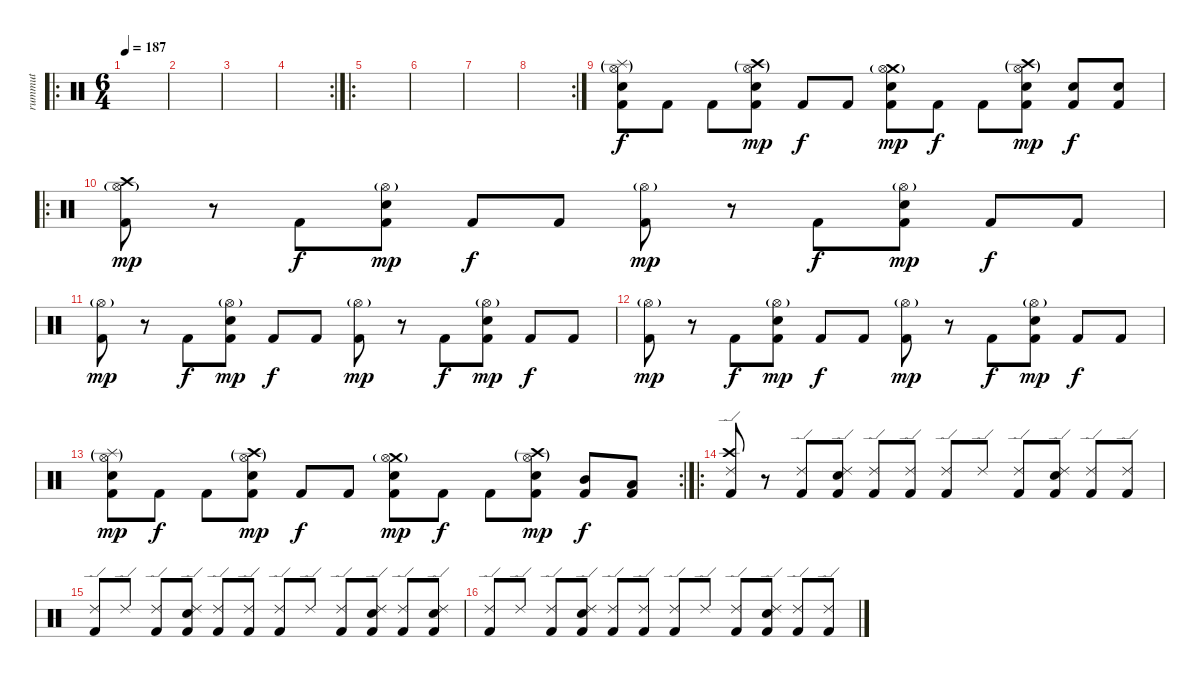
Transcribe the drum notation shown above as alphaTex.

\track ("rummut" "rummut") {instrument percussion}
\staff {score}
\articulation defaults
\ro
\ts (6 4)
\tempo 187
\clef neutral
\ks c
|
|
|
\rc 2
|
\ro
|
|
|
\rc 2
|
("Kick (hit) 2" "Snare (hit) 2" "Splash (hit)"{g} "Hi-Hat (open)"{g}).8 "Kick (hit) 2".8{dy f} "Kick (hit) 2".8 ("Kick (hit) 2" "Snare (hit) 2" "Crash high (hit)"{g} "Hi-Hat (open)"{g}).8{dy mp} "Kick (hit) 2".8{dy f} "Kick (hit) 2".8 ("Kick (hit) 2" "Snare (hit) 2" "Crash medium (hit)"{g} "Hi-Hat (open)"{g}).8{dy mp} "Kick (hit) 2".8{dy f} "Kick (hit) 2".8 ("Kick (hit) 2" "Snare (hit) 2" "Crash high (hit)"{g} "Hi-Hat (open)"{g}).8{dy mp} ("Kick (hit) 2" "Snare (hit) 2").8{dy f} ("Kick (hit) 2" "Snare (hit) 2").8 |
\ro
("Kick (hit) 2" "Hi-Hat (open)"{g} "Crash high (hit)").8{dy mp} r.8 "Kick (hit) 2".8{dy f} ("Kick (hit) 2" "Hi-Hat (open)"{g} "Snare (hit) 2").8{dy mp} "Kick (hit) 2".8{dy f} "Kick (hit) 2".8 ("Kick (hit) 2" "Hi-Hat (open)"{g}).8{dy mp} r.8 "Kick (hit) 2".8{dy f} ("Kick (hit) 2" "Hi-Hat (open)"{g} "Snare (hit) 2").8{dy mp} "Kick (hit) 2".8{dy f} "Kick (hit) 2".8 |
("Kick (hit) 2" "Hi-Hat (open)"{g}).8{dy mp} r.8 "Kick (hit) 2".8{dy f} ("Kick (hit) 2" "Hi-Hat (open)"{g} "Snare (hit) 2").8{dy mp} "Kick (hit) 2".8{dy f} "Kick (hit) 2".8 ("Kick (hit) 2" "Hi-Hat (open)"{g}).8{dy mp} r.8 "Kick (hit) 2".8{dy f} ("Kick (hit) 2" "Hi-Hat (open)"{g} "Snare (hit) 2").8{dy mp} "Kick (hit) 2".8{dy f} "Kick (hit) 2".8 |
("Kick (hit) 2" "Hi-Hat (open)"{g}).8{dy mp} r.8 "Kick (hit) 2".8{dy f} ("Kick (hit) 2" "Hi-Hat (open)"{g} "Snare (hit) 2").8{dy mp} "Kick (hit) 2".8{dy f} "Kick (hit) 2".8 ("Kick (hit) 2" "Hi-Hat (open)"{g}).8{dy mp} r.8 "Kick (hit) 2".8{dy f} ("Kick (hit) 2" "Hi-Hat (open)"{g} "Snare (hit) 2").8{dy mp} "Kick (hit) 2".8{dy f} "Kick (hit) 2".8 |
\rc 2
("Kick (hit) 2" "Snare (hit) 2" "Splash (hit)"{g} "Hi-Hat (open)"{g}).8{dy mp} "Kick (hit) 2".8{dy f} "Kick (hit) 2".8 ("Kick (hit) 2" "Snare (hit) 2" "Crash high (hit)"{g} "Hi-Hat (open)"{g}).8{dy mp} "Kick (hit) 2".8{dy f} "Kick (hit) 2".8 ("Kick (hit) 2" "Snare (hit) 2" "Crash medium (hit)"{g} "Hi-Hat (open)"{g}).8{dy mp} "Kick (hit) 2".8{dy f} "Kick (hit) 2".8 ("Kick (hit) 2" "Snare (hit) 2" "Crash high (hit)"{g} "Hi-Hat (open)"{g}).8{dy mp} ("Kick (hit) 2" "Mid Tom (hit)").8{dy f} ("Kick (hit) 2" "Low Tom (hit)").8 |
\ro
("Kick (hit) 2" "Ride (edge) 2" "Crash high (hit)").8 r.8 ("Kick (hit) 2" "Ride (edge) 2").8 ("Kick (hit) 2" "Ride (edge) 2" "Snare (hit) 2").8 ("Kick (hit) 2" "Ride (edge) 2").8 ("Kick (hit) 2" "Ride (edge) 2").8 ("Kick (hit) 2" "Ride (edge) 2").8 "Ride (edge) 2".8 ("Kick (hit) 2" "Ride (edge) 2").8 ("Kick (hit) 2" "Ride (edge) 2" "Snare (hit) 2").8 ("Kick (hit) 2" "Ride (edge) 2").8 ("Kick (hit) 2" "Ride (edge) 2").8 |
("Kick (hit) 2" "Ride (edge) 2").8 "Ride (edge) 2".8 ("Kick (hit) 2" "Ride (edge) 2").8 ("Kick (hit) 2" "Ride (edge) 2" "Snare (hit) 2").8 ("Kick (hit) 2" "Ride (edge) 2").8 ("Kick (hit) 2" "Ride (edge) 2").8 ("Kick (hit) 2" "Ride (edge) 2").8 "Ride (edge) 2".8 ("Kick (hit) 2" "Ride (edge) 2").8 ("Kick (hit) 2" "Ride (edge) 2" "Snare (hit) 2").8 ("Kick (hit) 2" "Ride (edge) 2").8 ("Kick (hit) 2" "Ride (edge) 2" "Snare (hit) 2").8 |
("Kick (hit) 2" "Ride (edge) 2").8 "Ride (edge) 2".8 ("Kick (hit) 2" "Ride (edge) 2").8 ("Kick (hit) 2" "Ride (edge) 2" "Snare (hit) 2").8 ("Kick (hit) 2" "Ride (edge) 2").8 ("Kick (hit) 2" "Ride (edge) 2").8 ("Kick (hit) 2" "Ride (edge) 2").8 "Ride (edge) 2".8 ("Kick (hit) 2" "Ride (edge) 2").8 ("Kick (hit) 2" "Ride (edge) 2" "Snare (hit) 2").8 ("Kick (hit) 2" "Ride (edge) 2").8 ("Kick (hit) 2" "Ride (edge) 2").8
